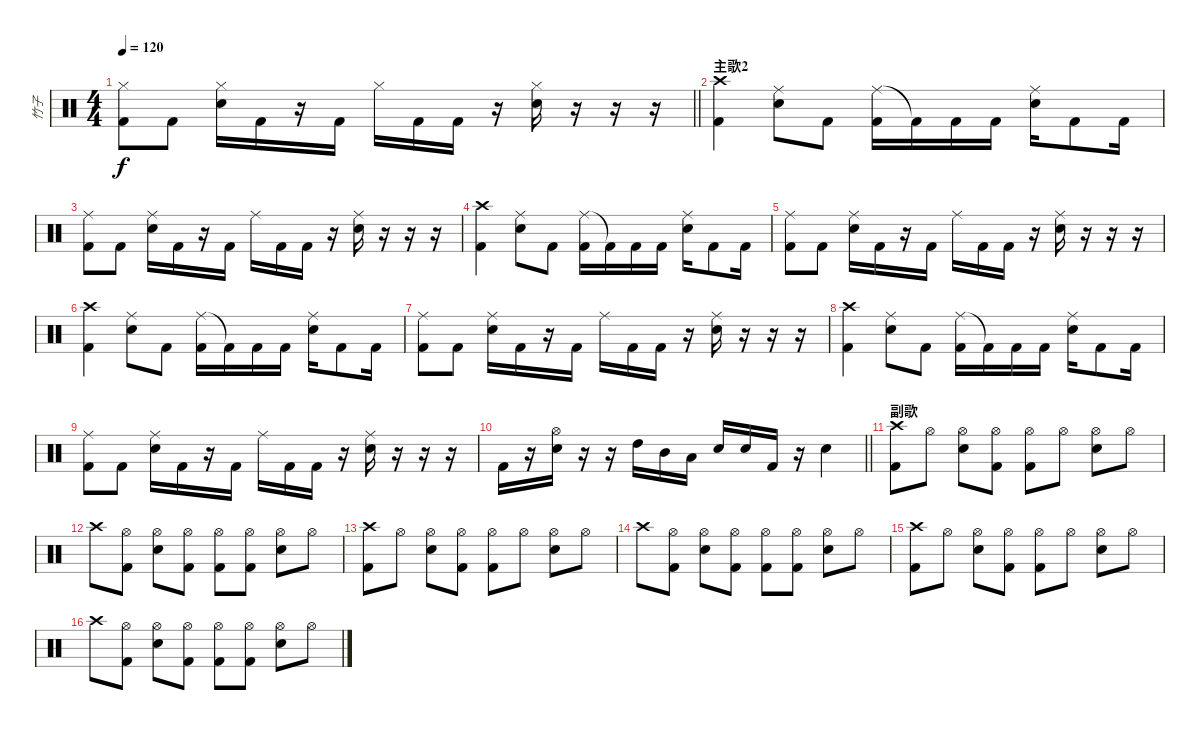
\track ("竹子" "竹子") {instrument percussion}
\staff {score}
\articulation defaults
\ts (4 4)
\tempo 120
\clef neutral
\barLineRight lightlight
\ks c
("Hi-Hat (closed)" "Kick (hit) 2").8{dy f} "Kick (hit) 2".8 ("Hi-Hat (closed)" "Electric Snare (hit)").16 "Kick (hit) 2".16 r.16 "Kick (hit) 2".16 "Hi-Hat (closed)".16 "Kick (hit) 2".16 "Kick (hit) 2".16 r.16 ("Hi-Hat (closed)" "Electric Snare (hit)").16 r.16 r.16 r.16 |
\section ("" "主歌2")
("Crash high (hit)" "Kick (hit) 2").4 ("Ride (middle)" "Electric Snare (hit)").8 "Kick (hit) 2".8 ("Ride (middle)" "Kick (hit) 2").16 "Kick (hit) 2"{t}.16 "Kick (hit) 2".16 "Kick (hit) 2".16 ("Ride (middle)" "Electric Snare (hit)").16 "Kick (hit) 2".8 "Kick (hit) 2".16 |
("Ride (middle)" "Kick (hit) 2").8 "Kick (hit) 2".8 ("Ride (middle)" "Electric Snare (hit)").16 "Kick (hit) 2".16 r.16 "Kick (hit) 2".16 "Ride (middle)".16 "Kick (hit) 2".16 "Kick (hit) 2".16 r.16 ("Ride (middle)" "Electric Snare (hit)").16 r.16 r.16 r.16 |
("Crash high (hit)" "Kick (hit) 2").4 ("Ride (middle)" "Electric Snare (hit)").8 "Kick (hit) 2".8 ("Ride (middle)" "Kick (hit) 2").16 "Kick (hit) 2"{t}.16 "Kick (hit) 2".16 "Kick (hit) 2".16 ("Ride (middle)" "Electric Snare (hit)").16 "Kick (hit) 2".8 "Kick (hit) 2".16 |
("Ride (middle)" "Kick (hit) 2").8 "Kick (hit) 2".8 ("Ride (middle)" "Electric Snare (hit)").16 "Kick (hit) 2".16 r.16 "Kick (hit) 2".16 "Ride (middle)".16 "Kick (hit) 2".16 "Kick (hit) 2".16 r.16 ("Ride (middle)" "Electric Snare (hit)").16 r.16 r.16 r.16 |
("Crash high (hit)" "Kick (hit) 2").4 ("Ride (middle)" "Electric Snare (hit)").8 "Kick (hit) 2".8 ("Ride (middle)" "Kick (hit) 2").16 "Kick (hit) 2"{t}.16 "Kick (hit) 2".16 "Kick (hit) 2".16 ("Ride (middle)" "Electric Snare (hit)").16 "Kick (hit) 2".8 "Kick (hit) 2".16 |
("Ride (middle)" "Kick (hit) 2").8 "Kick (hit) 2".8 ("Ride (middle)" "Electric Snare (hit)").16 "Kick (hit) 2".16 r.16 "Kick (hit) 2".16 "Ride (middle)".16 "Kick (hit) 2".16 "Kick (hit) 2".16 r.16 ("Ride (middle)" "Electric Snare (hit)").16 r.16 r.16 r.16 |
("Crash high (hit)" "Kick (hit) 2").4 ("Ride (middle)" "Electric Snare (hit)").8 "Kick (hit) 2".8 ("Ride (middle)" "Kick (hit) 2").16 "Kick (hit) 2"{t}.16 "Kick (hit) 2".16 "Kick (hit) 2".16 ("Ride (middle)" "Electric Snare (hit)").16 "Kick (hit) 2".8 "Kick (hit) 2".16 |
("Ride (middle)" "Kick (hit) 2").8 "Kick (hit) 2".8 ("Ride (middle)" "Electric Snare (hit)").16 "Kick (hit) 2".16 r.16 "Kick (hit) 2".16 "Ride (middle)".16 "Kick (hit) 2".16 "Kick (hit) 2".16 r.16 ("Ride (middle)" "Electric Snare (hit)").16 r.16 r.16 r.16 |
\barLineRight lightlight "Kick (hit) 2".16
r.16 ("Hi-Hat (open)" "Electric Snare (hit)").16 r.16 r.16 "High Tom (hit)".16 "Mid Tom (hit)".16 "Low Tom (hit)".16 "Electric Snare (hit)".16 "Electric Snare (hit)".16 "Kick (hit) 2".16 r.16 "Electric Snare (hit)".4 |
\section ("" "副歌")
("Crash high (hit)" "Kick (hit) 2").8 "Hi-Hat (open)".8 ("Hi-Hat (open)" "Electric Snare (hit)").8 ("Hi-Hat (open)" "Kick (hit) 2").8 ("Hi-Hat (open)" "Kick (hit) 2").8 "Hi-Hat (open)".8 ("Hi-Hat (open)" "Electric Snare (hit)").8 "Hi-Hat (open)".8 |
"Crash high (hit)".8 ("Hi-Hat (open)" "Kick (hit) 2").8 ("Hi-Hat (open)" "Electric Snare (hit)").8 ("Hi-Hat (open)" "Kick (hit) 2").8 ("Hi-Hat (open)" "Kick (hit) 2").8 ("Hi-Hat (open)" "Kick (hit) 2").8 ("Hi-Hat (open)" "Electric Snare (hit)").8 "Hi-Hat (open)".8 |
("Crash high (hit)" "Kick (hit) 2").8 "Hi-Hat (open)".8 ("Hi-Hat (open)" "Electric Snare (hit)").8 ("Hi-Hat (open)" "Kick (hit) 2").8 ("Hi-Hat (open)" "Kick (hit) 2").8 "Hi-Hat (open)".8 ("Hi-Hat (open)" "Electric Snare (hit)").8 "Hi-Hat (open)".8 |
"Crash high (hit)".8 ("Hi-Hat (open)" "Kick (hit) 2").8 ("Hi-Hat (open)" "Electric Snare (hit)").8 ("Hi-Hat (open)" "Kick (hit) 2").8 ("Hi-Hat (open)" "Kick (hit) 2").8 ("Hi-Hat (open)" "Kick (hit) 2").8 ("Hi-Hat (open)" "Electric Snare (hit)").8 "Hi-Hat (open)".8 |
("Crash high (hit)" "Kick (hit) 2").8 "Hi-Hat (open)".8 ("Hi-Hat (open)" "Electric Snare (hit)").8 ("Hi-Hat (open)" "Kick (hit) 2").8 ("Hi-Hat (open)" "Kick (hit) 2").8 "Hi-Hat (open)".8 ("Hi-Hat (open)" "Electric Snare (hit)").8 "Hi-Hat (open)".8 |
"Crash high (hit)".8 ("Hi-Hat (open)" "Kick (hit) 2").8 ("Hi-Hat (open)" "Electric Snare (hit)").8 ("Hi-Hat (open)" "Kick (hit) 2").8 ("Hi-Hat (open)" "Kick (hit) 2").8 ("Hi-Hat (open)" "Kick (hit) 2").8 ("Hi-Hat (open)" "Electric Snare (hit)").8 "Hi-Hat (open)".8
